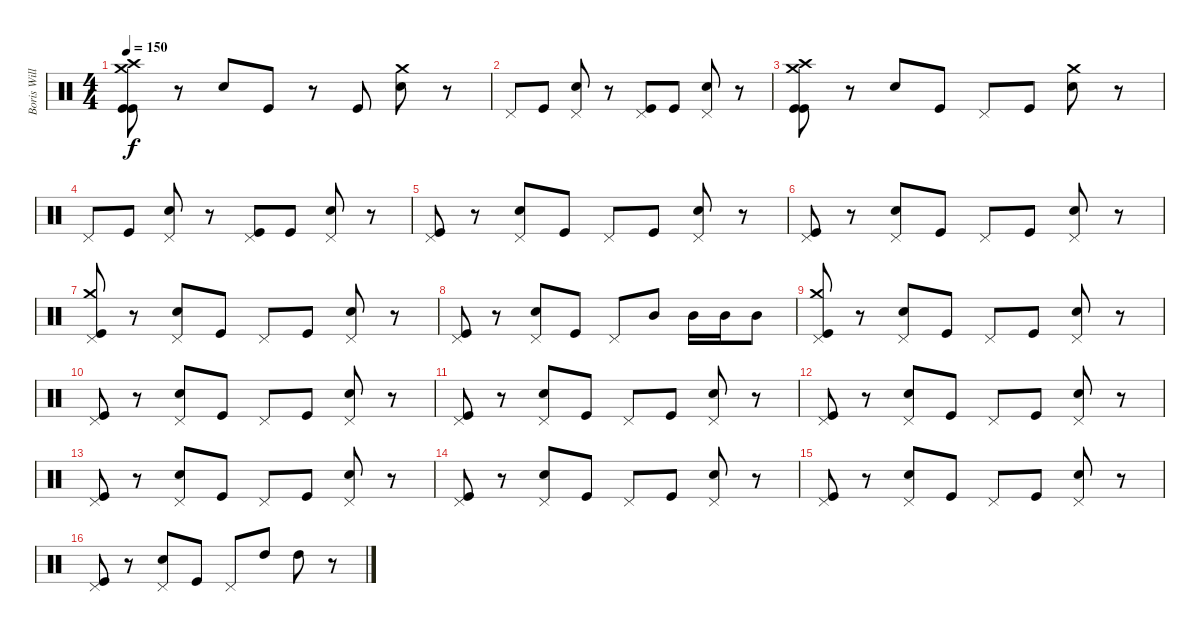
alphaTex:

\track ("Boris Williams" "Boris Will") {instrument percussion}
\staff {score}
\articulation defaults
\ts (4 4)
\tempo 150
\clef neutral
\ks c
("Kick (hit)" "Kick (hit)" "Crash high (hit)" "Crash medium (hit)").8{dy f} r.8 "Snare (hit) 2".8 "Kick (hit)".8 r.8 "Kick (hit)".8 ("Snare (hit) 2" "Crash medium (hit)").8 r.8 |
"Pedal Hi-Hat (hit)".8 "Kick (hit)".8 ("Pedal Hi-Hat (hit)" "Snare (hit) 2").8 r.8 ("Pedal Hi-Hat (hit)" "Kick (hit)").8 "Kick (hit)".8 ("Pedal Hi-Hat (hit)" "Snare (hit) 2").8 r.8 |
("Kick (hit)" "Kick (hit)" "Crash high (hit)" "Crash medium (hit)").8 r.8 "Snare (hit) 2".8 "Kick (hit)".8 "Pedal Hi-Hat (hit)".8 "Kick (hit)".8 ("Snare (hit) 2" "Crash medium (hit)").8 r.8 |
"Pedal Hi-Hat (hit)".8 "Kick (hit)".8 ("Pedal Hi-Hat (hit)" "Snare (hit) 2").8 r.8 ("Pedal Hi-Hat (hit)" "Kick (hit)").8 "Kick (hit)".8 ("Pedal Hi-Hat (hit)" "Snare (hit) 2").8 r.8 |
("Pedal Hi-Hat (hit)" "Kick (hit)").8 r.8 ("Pedal Hi-Hat (hit)" "Snare (hit) 2").8 "Kick (hit)".8 "Pedal Hi-Hat (hit)".8 "Kick (hit)".8 ("Pedal Hi-Hat (hit)" "Snare (hit) 2").8 r.8 |
("Pedal Hi-Hat (hit)" "Kick (hit)").8 r.8 ("Pedal Hi-Hat (hit)" "Snare (hit) 2").8 "Kick (hit)".8 "Pedal Hi-Hat (hit)".8 "Kick (hit)".8 ("Pedal Hi-Hat (hit)" "Snare (hit) 2").8 r.8 |
("Pedal Hi-Hat (hit)" "Kick (hit)" "Crash medium (hit)").8 r.8 ("Pedal Hi-Hat (hit)" "Snare (hit) 2").8 "Kick (hit)".8 "Pedal Hi-Hat (hit)".8 "Kick (hit)".8 ("Pedal Hi-Hat (hit)" "Snare (hit) 2").8 r.8 |
("Pedal Hi-Hat (hit)" "Kick (hit)").8 r.8 ("Pedal Hi-Hat (hit)" "Snare (hit) 2").8 "Kick (hit)".8 "Pedal Hi-Hat (hit)".8 "Mid Tom (hit)".8 "Mid Tom (hit)".16 "Mid Tom (hit)".16 "Mid Tom (hit)".8 |
("Pedal Hi-Hat (hit)" "Kick (hit)" "Crash medium (hit)").8 r.8 ("Pedal Hi-Hat (hit)" "Snare (hit) 2").8 "Kick (hit)".8 "Pedal Hi-Hat (hit)".8 "Kick (hit)".8 ("Pedal Hi-Hat (hit)" "Snare (hit) 2").8 r.8 |
("Pedal Hi-Hat (hit)" "Kick (hit)").8 r.8 ("Pedal Hi-Hat (hit)" "Snare (hit) 2").8 "Kick (hit)".8 "Pedal Hi-Hat (hit)".8 "Kick (hit)".8 ("Pedal Hi-Hat (hit)" "Snare (hit) 2").8 r.8 |
("Pedal Hi-Hat (hit)" "Kick (hit)").8 r.8 ("Pedal Hi-Hat (hit)" "Snare (hit) 2").8 "Kick (hit)".8 "Pedal Hi-Hat (hit)".8 "Kick (hit)".8 ("Pedal Hi-Hat (hit)" "Snare (hit) 2").8 r.8 |
("Pedal Hi-Hat (hit)" "Kick (hit)").8 r.8 ("Pedal Hi-Hat (hit)" "Snare (hit) 2").8 "Kick (hit)".8 "Pedal Hi-Hat (hit)".8 "Kick (hit)".8 ("Pedal Hi-Hat (hit)" "Snare (hit) 2").8 r.8 |
("Pedal Hi-Hat (hit)" "Kick (hit)").8 r.8 ("Pedal Hi-Hat (hit)" "Snare (hit) 2").8 "Kick (hit)".8 "Pedal Hi-Hat (hit)".8 "Kick (hit)".8 ("Pedal Hi-Hat (hit)" "Snare (hit) 2").8 r.8 |
("Pedal Hi-Hat (hit)" "Kick (hit)").8 r.8 ("Pedal Hi-Hat (hit)" "Snare (hit) 2").8 "Kick (hit)".8 "Pedal Hi-Hat (hit)".8 "Kick (hit)".8 ("Pedal Hi-Hat (hit)" "Snare (hit) 2").8 r.8 |
("Pedal Hi-Hat (hit)" "Kick (hit)").8 r.8 ("Pedal Hi-Hat (hit)" "Snare (hit) 2").8 "Kick (hit)".8 "Pedal Hi-Hat (hit)".8 "Kick (hit)".8 ("Pedal Hi-Hat (hit)" "Snare (hit) 2").8 r.8 |
("Pedal Hi-Hat (hit)" "Kick (hit)").8 r.8 ("Pedal Hi-Hat (hit)" "Snare (hit) 2").8 "Kick (hit)".8 "Pedal Hi-Hat (hit)".8 "High Tom (hit)".8 "High Tom (hit)".8 r.8
